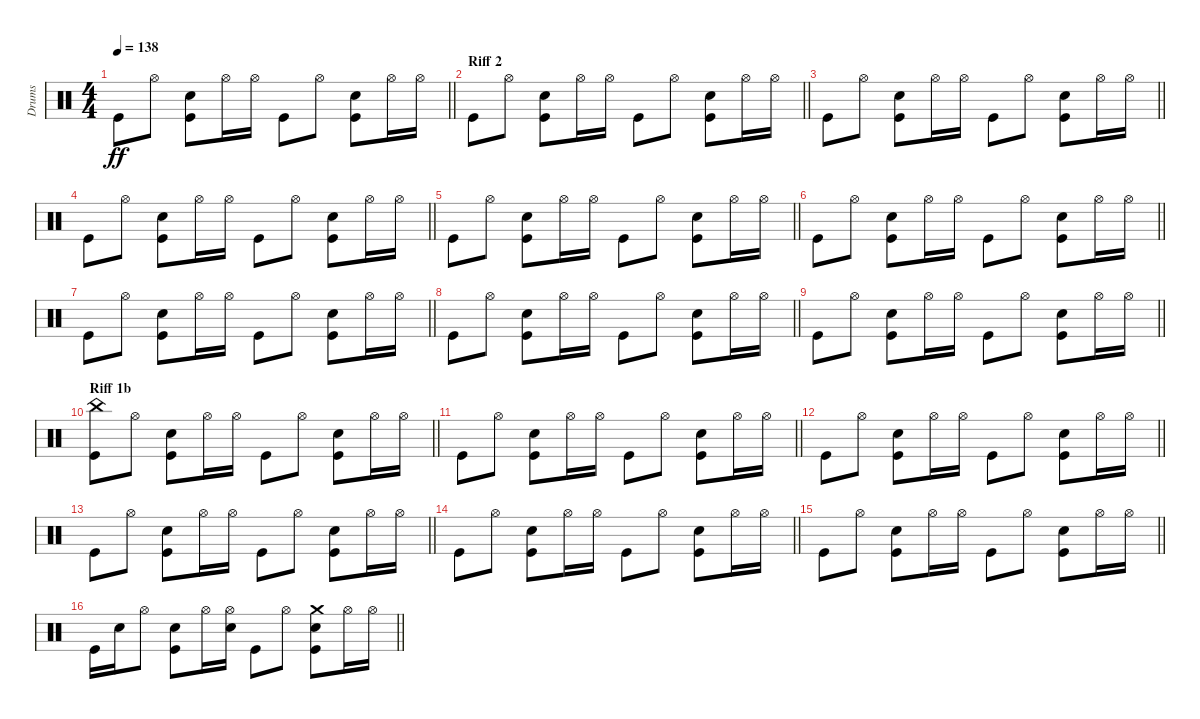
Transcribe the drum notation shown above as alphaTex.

\track ("Drums" "Drums") {instrument percussion}
\staff {score}
\articulation defaults
\ts (4 4)
\tempo 138
\clef neutral
\barLineRight lightlight
\ks c "Kick (hit)".8{dy ff} "Hi-Hat (open)".8
("Kick (hit)" "Snare (hit) 2").8 "Hi-Hat (open)".16 "Hi-Hat (open)".16 "Kick (hit)".8 "Hi-Hat (open)".8 ("Kick (hit)" "Snare (hit) 2").8 "Hi-Hat (open)".16 "Hi-Hat (open)".16 |
\section ("" "Riff 2")
\barLineRight lightlight "Kick (hit)".8 "Hi-Hat (open)".8
("Kick (hit)" "Snare (hit) 2").8 "Hi-Hat (open)".16 "Hi-Hat (open)".16 "Kick (hit)".8 "Hi-Hat (open)".8 ("Kick (hit)" "Snare (hit) 2").8 "Hi-Hat (open)".16 "Hi-Hat (open)".16 |
\barLineRight lightlight "Kick (hit)".8 "Hi-Hat (open)".8
("Kick (hit)" "Snare (hit) 2").8 "Hi-Hat (open)".16 "Hi-Hat (open)".16 "Kick (hit)".8 "Hi-Hat (open)".8 ("Kick (hit)" "Snare (hit) 2").8 "Hi-Hat (open)".16 "Hi-Hat (open)".16 |
\barLineRight lightlight "Kick (hit)".8 "Hi-Hat (open)".8
("Kick (hit)" "Snare (hit) 2").8 "Hi-Hat (open)".16 "Hi-Hat (open)".16 "Kick (hit)".8 "Hi-Hat (open)".8 ("Kick (hit)" "Snare (hit) 2").8 "Hi-Hat (open)".16 "Hi-Hat (open)".16 |
\barLineRight lightlight "Kick (hit)".8 "Hi-Hat (open)".8
("Kick (hit)" "Snare (hit) 2").8 "Hi-Hat (open)".16 "Hi-Hat (open)".16 "Kick (hit)".8 "Hi-Hat (open)".8 ("Kick (hit)" "Snare (hit) 2").8 "Hi-Hat (open)".16 "Hi-Hat (open)".16 |
\barLineRight lightlight "Kick (hit)".8 "Hi-Hat (open)".8
("Kick (hit)" "Snare (hit) 2").8 "Hi-Hat (open)".16 "Hi-Hat (open)".16 "Kick (hit)".8 "Hi-Hat (open)".8 ("Kick (hit)" "Snare (hit) 2").8 "Hi-Hat (open)".16 "Hi-Hat (open)".16 |
\barLineRight lightlight "Kick (hit)".8 "Hi-Hat (open)".8
("Kick (hit)" "Snare (hit) 2").8 "Hi-Hat (open)".16 "Hi-Hat (open)".16 "Kick (hit)".8 "Hi-Hat (open)".8 ("Kick (hit)" "Snare (hit) 2").8 "Hi-Hat (open)".16 "Hi-Hat (open)".16 |
\barLineRight lightlight "Kick (hit)".8 "Hi-Hat (open)".8
("Kick (hit)" "Snare (hit) 2").8 "Hi-Hat (open)".16 "Hi-Hat (open)".16 "Kick (hit)".8 "Hi-Hat (open)".8 ("Kick (hit)" "Snare (hit) 2").8 "Hi-Hat (open)".16 "Hi-Hat (open)".16 |
\barLineRight lightlight "Kick (hit)".8 "Hi-Hat (open)".8
("Kick (hit)" "Snare (hit) 2").8 "Hi-Hat (open)".16 "Hi-Hat (open)".16 "Kick (hit)".8 "Hi-Hat (open)".8 ("Kick (hit)" "Snare (hit) 2").8 "Hi-Hat (open)".16 "Hi-Hat (open)".16 |
\section ("" "Riff 1b")
\barLineRight lightlight
("Kick (hit)" "China (hit)").8 "Hi-Hat (open)".8 ("Kick (hit)" "Snare (hit) 2").8 "Hi-Hat (open)".16 "Hi-Hat (open)".16 "Kick (hit)".8 "Hi-Hat (open)".8 ("Kick (hit)" "Snare (hit) 2").8 "Hi-Hat (open)".16 "Hi-Hat (open)".16 |
\barLineRight lightlight "Kick (hit)".8 "Hi-Hat (open)".8
("Kick (hit)" "Snare (hit) 2").8 "Hi-Hat (open)".16 "Hi-Hat (open)".16 "Kick (hit)".8 "Hi-Hat (open)".8 ("Kick (hit)" "Snare (hit) 2").8 "Hi-Hat (open)".16 "Hi-Hat (open)".16 |
\barLineRight lightlight "Kick (hit)".8 "Hi-Hat (open)".8
("Kick (hit)" "Snare (hit) 2").8 "Hi-Hat (open)".16 "Hi-Hat (open)".16 "Kick (hit)".8 "Hi-Hat (open)".8 ("Kick (hit)" "Snare (hit) 2").8 "Hi-Hat (open)".16 "Hi-Hat (open)".16 |
\barLineRight lightlight "Kick (hit)".8 "Hi-Hat (open)".8
("Kick (hit)" "Snare (hit) 2").8 "Hi-Hat (open)".16 "Hi-Hat (open)".16 "Kick (hit)".8 "Hi-Hat (open)".8 ("Kick (hit)" "Snare (hit) 2").8 "Hi-Hat (open)".16 "Hi-Hat (open)".16 |
\barLineRight lightlight "Kick (hit)".8 "Hi-Hat (open)".8
("Kick (hit)" "Snare (hit) 2").8 "Hi-Hat (open)".16 "Hi-Hat (open)".16 "Kick (hit)".8 "Hi-Hat (open)".8 ("Kick (hit)" "Snare (hit) 2").8 "Hi-Hat (open)".16 "Hi-Hat (open)".16 |
\barLineRight lightlight "Kick (hit)".8 "Hi-Hat (open)".8
("Kick (hit)" "Snare (hit) 2").8 "Hi-Hat (open)".16 "Hi-Hat (open)".16 "Kick (hit)".8 "Hi-Hat (open)".8 ("Kick (hit)" "Snare (hit) 2").8 "Hi-Hat (open)".16 "Hi-Hat (open)".16 |
\barLineRight lightlight "Kick (hit)".16 "Snare (hit) 2".16 "Hi-Hat (open)".8
("Kick (hit)" "Snare (hit) 2").8 "Hi-Hat (open)".16 ("Snare (hit) 2" "Hi-Hat (open)").16 "Kick (hit)".8 "Hi-Hat (open)".8 ("Kick (hit)" "Snare (hit) 2" "Crash medium (hit)").8 "Hi-Hat (open)".16 "Hi-Hat (open)".16
